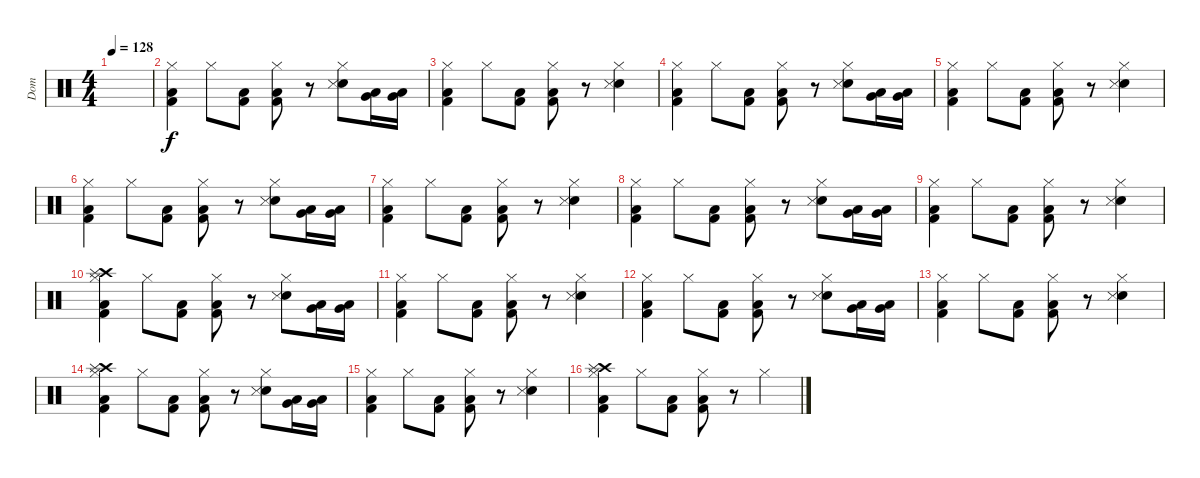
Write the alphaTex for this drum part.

\track ("Dom " "Dom ") {instrument percussion}
\staff {score}
\articulation defaults
\ts (4 4)
\tempo 128
\clef neutral
\ks c
|
("Hi-Hat (closed)" "Low Floor Tom (hit)" "Kick (hit) 2").4 "Hi-Hat (closed)".8 ("Low Floor Tom (hit)" "Kick (hit) 2").8 ("Hi-Hat (closed)" "Low Floor Tom (hit)" "Kick (hit) 2").8 r.8 ("Hi-Hat (closed)" "Electric Snare (hit)" "Metronome (hit)").8 ("Low Tom (hit)" "Very Low Tom (hit)").16 ("Very Low Tom (hit)" "Low Floor Tom (hit)").16 |
("Hi-Hat (closed)" "Low Floor Tom (hit)" "Kick (hit) 2").4 "Hi-Hat (closed)".8 ("Low Floor Tom (hit)" "Kick (hit) 2").8 ("Hi-Hat (closed)" "Low Floor Tom (hit)" "Kick (hit) 2").8 r.8 ("Hi-Hat (closed)" "Electric Snare (hit)" "Metronome (hit)").4 |
("Hi-Hat (closed)" "Low Floor Tom (hit)" "Kick (hit) 2").4 "Hi-Hat (closed)".8 ("Low Floor Tom (hit)" "Kick (hit) 2").8 ("Hi-Hat (closed)" "Low Floor Tom (hit)" "Kick (hit) 2").8 r.8 ("Hi-Hat (closed)" "Electric Snare (hit)" "Metronome (hit)").8 ("Low Tom (hit)" "Very Low Tom (hit)").16 ("Very Low Tom (hit)" "Low Floor Tom (hit)").16 |
("Hi-Hat (closed)" "Low Floor Tom (hit)" "Kick (hit) 2").4 "Hi-Hat (closed)".8 ("Low Floor Tom (hit)" "Kick (hit) 2").8 ("Hi-Hat (closed)" "Low Floor Tom (hit)" "Kick (hit) 2").8 r.8 ("Hi-Hat (closed)" "Electric Snare (hit)" "Metronome (hit)").4 |
("Hi-Hat (closed)" "Low Floor Tom (hit)" "Kick (hit) 2").4 "Hi-Hat (closed)".8 ("Low Floor Tom (hit)" "Kick (hit) 2").8 ("Hi-Hat (closed)" "Low Floor Tom (hit)" "Kick (hit) 2").8 r.8 ("Hi-Hat (closed)" "Electric Snare (hit)" "Metronome (hit)").8 ("Low Tom (hit)" "Very Low Tom (hit)").16 ("Very Low Tom (hit)" "Low Floor Tom (hit)").16 |
("Hi-Hat (closed)" "Low Floor Tom (hit)" "Kick (hit) 2").4 "Hi-Hat (closed)".8 ("Low Floor Tom (hit)" "Kick (hit) 2").8 ("Hi-Hat (closed)" "Low Floor Tom (hit)" "Kick (hit) 2").8 r.8 ("Hi-Hat (closed)" "Electric Snare (hit)" "Metronome (hit)").4 |
("Hi-Hat (closed)" "Low Floor Tom (hit)" "Kick (hit) 2").4 "Hi-Hat (closed)".8 ("Low Floor Tom (hit)" "Kick (hit) 2").8 ("Hi-Hat (closed)" "Low Floor Tom (hit)" "Kick (hit) 2").8 r.8 ("Hi-Hat (closed)" "Electric Snare (hit)" "Metronome (hit)").8 ("Low Tom (hit)" "Very Low Tom (hit)").16 ("Very Low Tom (hit)" "Low Floor Tom (hit)").16 |
("Hi-Hat (closed)" "Low Floor Tom (hit)" "Kick (hit) 2").4 "Hi-Hat (closed)".8 ("Low Floor Tom (hit)" "Kick (hit) 2").8 ("Hi-Hat (closed)" "Low Floor Tom (hit)" "Kick (hit) 2").8 r.8 ("Hi-Hat (closed)" "Electric Snare (hit)" "Metronome (hit)").4 |
("Hi-Hat (closed)" "Crash high (hit)" "Splash (hit)" "Low Floor Tom (hit)" "Kick (hit) 2").4 "Hi-Hat (closed)".8 ("Low Floor Tom (hit)" "Kick (hit) 2").8 ("Hi-Hat (closed)" "Low Floor Tom (hit)" "Kick (hit) 2").8 r.8 ("Hi-Hat (closed)" "Electric Snare (hit)" "Metronome (hit)").8 ("Low Tom (hit)" "Very Low Tom (hit)").16 ("Very Low Tom (hit)" "Low Floor Tom (hit)").16 |
("Hi-Hat (closed)" "Low Floor Tom (hit)" "Kick (hit) 2").4 "Hi-Hat (closed)".8 ("Low Floor Tom (hit)" "Kick (hit) 2").8 ("Hi-Hat (closed)" "Low Floor Tom (hit)" "Kick (hit) 2").8 r.8 ("Hi-Hat (closed)" "Electric Snare (hit)" "Metronome (hit)").4 |
("Hi-Hat (closed)" "Low Floor Tom (hit)" "Kick (hit) 2").4 "Hi-Hat (closed)".8 ("Low Floor Tom (hit)" "Kick (hit) 2").8 ("Hi-Hat (closed)" "Low Floor Tom (hit)" "Kick (hit) 2").8 r.8 ("Hi-Hat (closed)" "Electric Snare (hit)" "Metronome (hit)").8 ("Low Tom (hit)" "Very Low Tom (hit)").16 ("Very Low Tom (hit)" "Low Floor Tom (hit)").16 |
("Hi-Hat (closed)" "Low Floor Tom (hit)" "Kick (hit) 2").4 "Hi-Hat (closed)".8 ("Low Floor Tom (hit)" "Kick (hit) 2").8 ("Hi-Hat (closed)" "Low Floor Tom (hit)" "Kick (hit) 2").8 r.8 ("Hi-Hat (closed)" "Electric Snare (hit)" "Metronome (hit)").4 |
("Hi-Hat (closed)" "Crash high (hit)" "Splash (hit)" "Low Floor Tom (hit)" "Kick (hit) 2").4 "Hi-Hat (closed)".8 ("Low Floor Tom (hit)" "Kick (hit) 2").8 ("Hi-Hat (closed)" "Low Floor Tom (hit)" "Kick (hit) 2").8 r.8 ("Hi-Hat (closed)" "Electric Snare (hit)" "Metronome (hit)").8 ("Low Tom (hit)" "Very Low Tom (hit)").16 ("Very Low Tom (hit)" "Low Floor Tom (hit)").16 |
("Hi-Hat (closed)" "Low Floor Tom (hit)" "Kick (hit) 2").4 "Hi-Hat (closed)".8 ("Low Floor Tom (hit)" "Kick (hit) 2").8 ("Hi-Hat (closed)" "Low Floor Tom (hit)" "Kick (hit) 2").8 r.8 ("Hi-Hat (closed)" "Electric Snare (hit)" "Metronome (hit)").4 |
("Hi-Hat (closed)" "Crash high (hit)" "Splash (hit)" "Low Floor Tom (hit)" "Kick (hit) 2").4 "Hi-Hat (closed)".8 ("Low Floor Tom (hit)" "Kick (hit) 2").8 ("Hi-Hat (closed)" "Low Floor Tom (hit)" "Kick (hit) 2").8 r.8 "Hi-Hat (closed)".4
